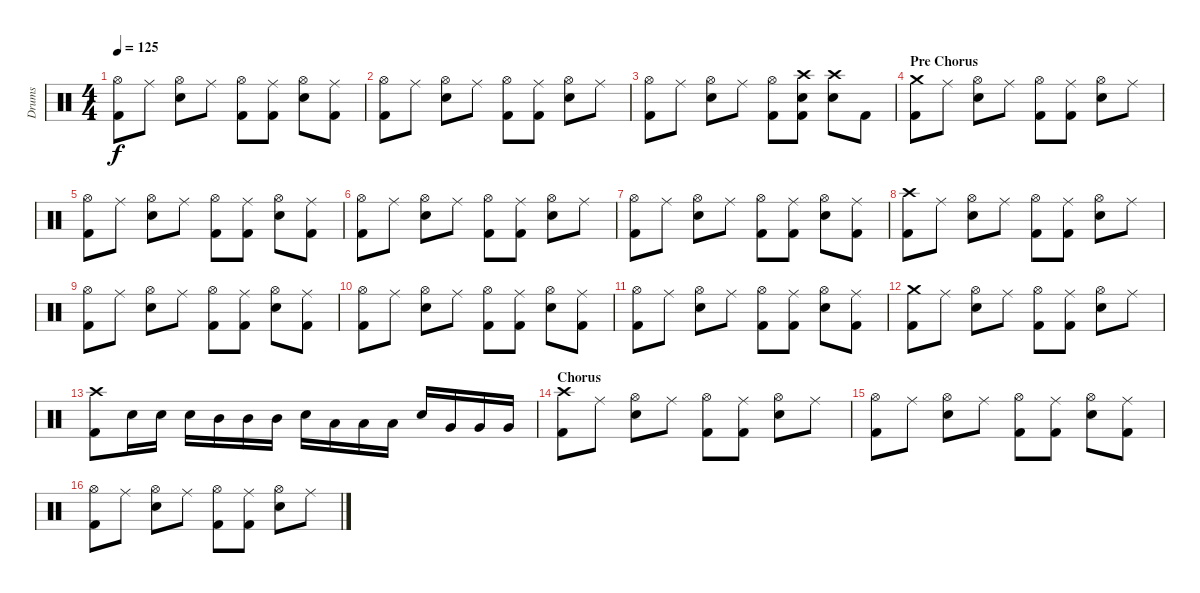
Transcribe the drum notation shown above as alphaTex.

\track ("Drums" "Drums") {instrument percussion}
\staff {score}
\articulation defaults
\ts (4 4)
\tempo 125
\clef neutral
\ks c
("Hi-Hat (open)" "Kick (hit) 2").8{dy f} "Ride (middle)".8 ("Hi-Hat (open)" "Electric Snare (hit)").8 "Ride (middle)".8 ("Hi-Hat (open)" "Kick (hit) 2").8 ("Ride (middle)" "Kick (hit) 2").8 ("Hi-Hat (open)" "Electric Snare (hit)").8 ("Ride (middle)" "Kick (hit) 2").8 |
("Hi-Hat (open)" "Kick (hit) 2").8 "Ride (middle)".8 ("Hi-Hat (open)" "Electric Snare (hit)").8 "Ride (middle)".8 ("Hi-Hat (open)" "Kick (hit) 2").8 ("Ride (middle)" "Kick (hit) 2").8 ("Hi-Hat (open)" "Electric Snare (hit)").8 "Ride (middle)".8 |
("Hi-Hat (open)" "Kick (hit) 2").8 "Ride (middle)".8 ("Hi-Hat (open)" "Electric Snare (hit)").8 "Ride (middle)".8 ("Hi-Hat (open)" "Kick (hit) 2").8 ("Crash high (hit)" "Electric Snare (hit)" "Kick (hit) 2").8 ("Crash high (hit)" "Electric Snare (hit)").8 "Kick (hit) 2".8 |
\section ("" "Pre Chorus")
("Crash medium (hit)" "Kick (hit) 2").8 "Ride (middle)".8 ("Hi-Hat (open)" "Electric Snare (hit)").8 "Ride (middle)".8 ("Hi-Hat (open)" "Kick (hit) 2").8 ("Ride (middle)" "Kick (hit) 2").8 ("Hi-Hat (open)" "Electric Snare (hit)").8 "Ride (middle)".8 |
("Hi-Hat (open)" "Kick (hit) 2").8 "Ride (middle)".8 ("Hi-Hat (open)" "Electric Snare (hit)").8 "Ride (middle)".8 ("Hi-Hat (open)" "Kick (hit) 2").8 ("Ride (middle)" "Kick (hit) 2").8 ("Hi-Hat (open)" "Electric Snare (hit)").8 ("Ride (middle)" "Kick (hit) 2").8 |
("Hi-Hat (open)" "Kick (hit) 2").8 "Ride (middle)".8 ("Hi-Hat (open)" "Electric Snare (hit)").8 "Ride (middle)".8 ("Hi-Hat (open)" "Kick (hit) 2").8 ("Ride (middle)" "Kick (hit) 2").8 ("Hi-Hat (open)" "Electric Snare (hit)").8 "Ride (middle)".8 |
("Hi-Hat (open)" "Kick (hit) 2").8 "Ride (middle)".8 ("Hi-Hat (open)" "Electric Snare (hit)").8 "Ride (middle)".8 ("Hi-Hat (open)" "Kick (hit) 2").8 ("Ride (middle)" "Kick (hit) 2").8 ("Hi-Hat (open)" "Electric Snare (hit)").8 ("Ride (middle)" "Kick (hit) 2").8 |
("Crash high (hit)" "Kick (hit) 2").8 "Ride (middle)".8 ("Hi-Hat (open)" "Electric Snare (hit)").8 "Ride (middle)".8 ("Hi-Hat (open)" "Kick (hit) 2").8 ("Ride (middle)" "Kick (hit) 2").8 ("Hi-Hat (open)" "Electric Snare (hit)").8 "Ride (middle)".8 |
("Hi-Hat (open)" "Kick (hit) 2").8 "Ride (middle)".8 ("Hi-Hat (open)" "Electric Snare (hit)").8 "Ride (middle)".8 ("Hi-Hat (open)" "Kick (hit) 2").8 ("Ride (middle)" "Kick (hit) 2").8 ("Hi-Hat (open)" "Electric Snare (hit)").8 ("Ride (middle)" "Kick (hit) 2").8 |
("Hi-Hat (open)" "Kick (hit) 2").8 "Ride (middle)".8 ("Hi-Hat (open)" "Electric Snare (hit)").8 "Ride (middle)".8 ("Hi-Hat (open)" "Kick (hit) 2").8 ("Ride (middle)" "Kick (hit) 2").8 ("Hi-Hat (open)" "Electric Snare (hit)").8 ("Ride (middle)" "Kick (hit) 2").8 |
("Hi-Hat (open)" "Kick (hit) 2").8 "Ride (middle)".8 ("Hi-Hat (open)" "Electric Snare (hit)").8 "Ride (middle)".8 ("Hi-Hat (open)" "Kick (hit) 2").8 ("Ride (middle)" "Kick (hit) 2").8 ("Hi-Hat (open)" "Electric Snare (hit)").8 ("Ride (middle)" "Kick (hit) 2").8 |
("Crash medium (hit)" "Kick (hit) 2").8 "Ride (middle)".8 ("Hi-Hat (open)" "Electric Snare (hit)").8 "Ride (middle)".8 ("Hi-Hat (open)" "Kick (hit) 2").8 ("Ride (middle)" "Kick (hit) 2").8 ("Hi-Hat (open)" "Electric Snare (hit)").8 "Ride (middle)".8 |
("Crash high (hit)" "Kick (hit) 2").8 "Electric Snare (hit)".16 "Electric Snare (hit)".16 "Electric Snare (hit)".16 "Mid Tom (hit)".16 "Mid Tom (hit)".16 "Mid Tom (hit)".16 "Electric Snare (hit)".16 "Low Tom (hit)".16 "Low Tom (hit)".16 "Low Tom (hit)".16 "Electric Snare (hit)".16 "Very Low Tom (hit)".16 "Very Low Tom (hit)".16 "Very Low Tom (hit)".16 |
\section ("" "Chorus")
("Crash high (hit)" "Kick (hit) 2").8 "Ride (middle)".8 ("Hi-Hat (open)" "Electric Snare (hit)").8 "Ride (middle)".8 ("Hi-Hat (open)" "Kick (hit) 2").8 ("Ride (middle)" "Kick (hit) 2").8 ("Hi-Hat (open)" "Electric Snare (hit)").8 "Ride (middle)".8 |
("Hi-Hat (open)" "Kick (hit) 2").8 "Ride (middle)".8 ("Hi-Hat (open)" "Electric Snare (hit)").8 "Ride (middle)".8 ("Hi-Hat (open)" "Kick (hit) 2").8 ("Ride (middle)" "Kick (hit) 2").8 ("Hi-Hat (open)" "Electric Snare (hit)").8 ("Ride (middle)" "Kick (hit) 2").8 |
("Hi-Hat (open)" "Kick (hit) 2").8 "Ride (middle)".8 ("Hi-Hat (open)" "Electric Snare (hit)").8 "Ride (middle)".8 ("Hi-Hat (open)" "Kick (hit) 2").8 ("Ride (middle)" "Kick (hit) 2").8 ("Hi-Hat (open)" "Electric Snare (hit)").8 "Ride (middle)".8
